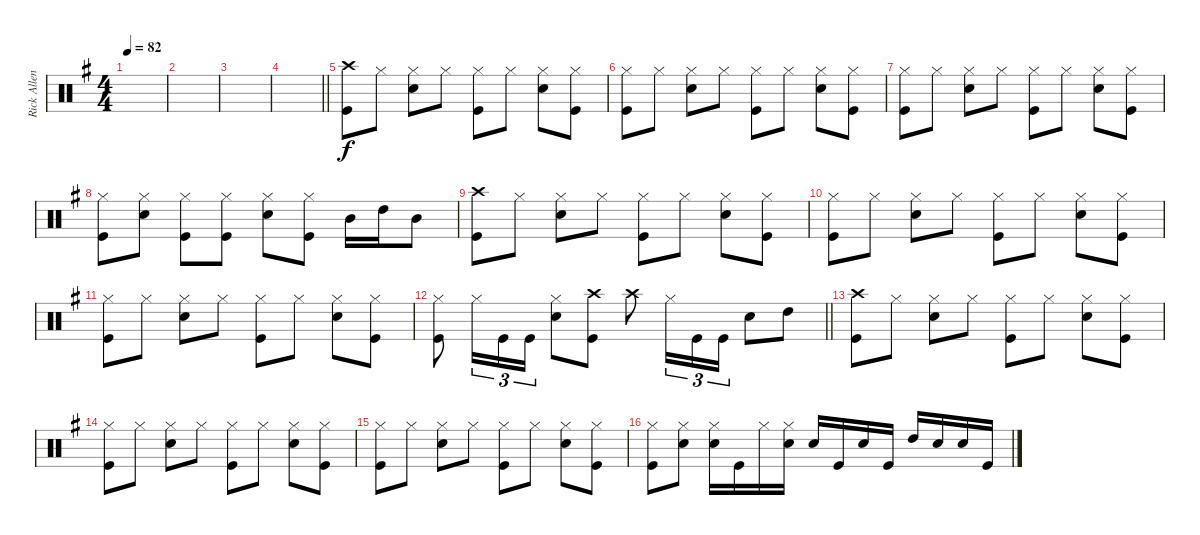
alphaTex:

\track ("Rick Allen" "Rick Allen") {instrument percussion}
\staff {score}
\articulation defaults
\ts (4 4)
\tempo 82
\clef neutral
\ks eminor
|
|
|
\barLineRight lightlight
|
("Crash high (hit)" "Kick (hit)").8 "Hi-Hat (closed)".8 ("Hi-Hat (closed)" "Snare (hit) 2").8 "Hi-Hat (closed)".8 ("Hi-Hat (closed)" "Kick (hit)").8 "Hi-Hat (closed)".8 ("Hi-Hat (closed)" "Snare (hit) 2").8 ("Hi-Hat (closed)" "Kick (hit)").8 |
("Hi-Hat (closed)" "Kick (hit)").8 "Hi-Hat (closed)".8 ("Hi-Hat (closed)" "Snare (hit) 2").8 "Hi-Hat (closed)".8 ("Hi-Hat (closed)" "Kick (hit)").8 "Hi-Hat (closed)".8 ("Hi-Hat (closed)" "Snare (hit) 2").8 ("Hi-Hat (closed)" "Kick (hit)").8 |
("Hi-Hat (closed)" "Kick (hit)").8 "Hi-Hat (closed)".8 ("Hi-Hat (closed)" "Snare (hit) 2").8 "Hi-Hat (closed)".8 ("Hi-Hat (closed)" "Kick (hit)").8 "Hi-Hat (closed)".8 ("Hi-Hat (closed)" "Snare (hit) 2").8 ("Hi-Hat (closed)" "Kick (hit)").8 |
("Hi-Hat (closed)" "Kick (hit)").8 ("Hi-Hat (closed)" "Snare (hit) 2").8 ("Hi-Hat (closed)" "Kick (hit)").8 ("Hi-Hat (closed)" "Kick (hit)").8 ("Hi-Hat (closed)" "Snare (hit) 2").8 ("Hi-Hat (closed)" "Kick (hit)").8 "Mid Tom (hit)".16 "High Tom (hit)".16 "Mid Tom (hit)".8 |
("Crash high (hit)" "Kick (hit)").8 "Hi-Hat (closed)".8 ("Hi-Hat (closed)" "Snare (hit) 2").8 "Hi-Hat (closed)".8 ("Hi-Hat (closed)" "Kick (hit)").8 "Hi-Hat (closed)".8 ("Hi-Hat (closed)" "Snare (hit) 2").8 ("Hi-Hat (closed)" "Kick (hit)").8 |
("Hi-Hat (closed)" "Kick (hit)").8 "Hi-Hat (closed)".8 ("Hi-Hat (closed)" "Snare (hit) 2").8 "Hi-Hat (closed)".8 ("Hi-Hat (closed)" "Kick (hit)").8 "Hi-Hat (closed)".8 ("Hi-Hat (closed)" "Snare (hit) 2").8 ("Hi-Hat (closed)" "Kick (hit)").8 |
("Hi-Hat (closed)" "Kick (hit)").8 "Hi-Hat (closed)".8 ("Hi-Hat (closed)" "Snare (hit) 2").8 "Hi-Hat (closed)".8 ("Hi-Hat (closed)" "Kick (hit)").8 "Hi-Hat (closed)".8 ("Hi-Hat (closed)" "Snare (hit) 2").8 ("Hi-Hat (closed)" "Kick (hit)").8 |
\barLineRight lightlight
("Hi-Hat (closed)" "Kick (hit)").8 "Hi-Hat (closed)".16{tu (3 2)} "Kick (hit)".16{tu (3 2)} "Kick (hit)".16{tu (3 2)} ("Hi-Hat (closed)" "Snare (hit) 2").8 ("Crash high (hit)" "Kick (hit)").8 "Crash high (hit)".8 "Hi-Hat (closed)".16{tu (3 2)} "Kick (hit)".16{tu (3 2)} "Kick (hit)".16{tu (3 2)} "Snare (hit) 2".8 "High Tom (hit)".8 |
("Crash high (hit)" "Kick (hit)").8 "Hi-Hat (closed)".8 ("Hi-Hat (closed)" "Snare (hit) 2").8 "Hi-Hat (closed)".8 ("Hi-Hat (closed)" "Kick (hit)").8 "Hi-Hat (closed)".8 ("Hi-Hat (closed)" "Snare (hit) 2").8 ("Hi-Hat (closed)" "Kick (hit)").8 |
("Hi-Hat (closed)" "Kick (hit)").8 "Hi-Hat (closed)".8 ("Hi-Hat (closed)" "Snare (hit) 2").8 "Hi-Hat (closed)".8 ("Hi-Hat (closed)" "Kick (hit)").8 "Hi-Hat (closed)".8 ("Hi-Hat (closed)" "Snare (hit) 2").8 ("Hi-Hat (closed)" "Kick (hit)").8 |
("Hi-Hat (closed)" "Kick (hit)").8 "Hi-Hat (closed)".8 ("Hi-Hat (closed)" "Snare (hit) 2").8 "Hi-Hat (closed)".8 ("Hi-Hat (closed)" "Kick (hit)").8 "Hi-Hat (closed)".8 ("Hi-Hat (closed)" "Snare (hit) 2").8 ("Hi-Hat (closed)" "Kick (hit)").8 |
("Hi-Hat (closed)" "Kick (hit)").8 ("Hi-Hat (closed)" "Snare (hit) 2").8 ("Hi-Hat (closed)" "Snare (hit) 2").16 "Kick (hit)".16 "Hi-Hat (closed)".16 ("Hi-Hat (closed)" "Snare (hit) 2").16 "Snare (hit) 2".16 "Kick (hit)".16 "Snare (hit) 2".16 "Kick (hit)".16 "High Tom (hit)".16 "Snare (hit) 2".16 "Snare (hit) 2".16 "Kick (hit)".16
